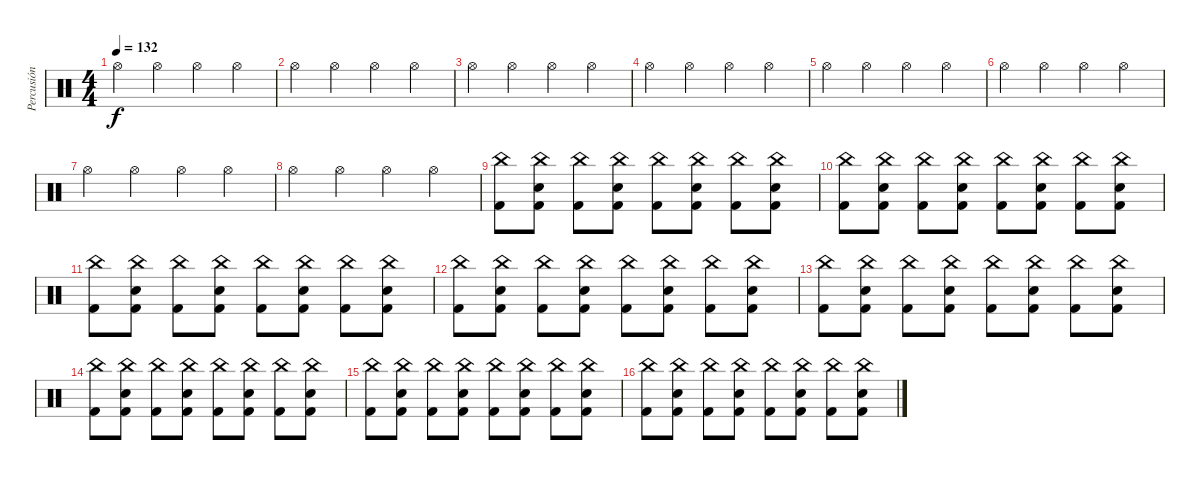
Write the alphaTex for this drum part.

\track ("Percusión" "Percusión") {instrument percussion}
\staff {score}
\articulation defaults
\ts (4 4)
\tempo 132
\clef neutral
\ks c "Hi-Hat (open)".4{dy f} "Hi-Hat (open)".4 "Hi-Hat (open)".4 "Hi-Hat (open)".4
|
"Hi-Hat (open)".4 "Hi-Hat (open)".4 "Hi-Hat (open)".4 "Hi-Hat (open)".4 |
"Hi-Hat (open)".4 "Hi-Hat (open)".4 "Hi-Hat (open)".4 "Hi-Hat (open)".4 |
"Hi-Hat (open)".4 "Hi-Hat (open)".4 "Hi-Hat (open)".4 "Hi-Hat (open)".4 |
"Hi-Hat (open)".4 "Hi-Hat (open)".4 "Hi-Hat (open)".4 "Hi-Hat (open)".4 |
"Hi-Hat (open)".4 "Hi-Hat (open)".4 "Hi-Hat (open)".4 "Hi-Hat (open)".4 |
"Hi-Hat (open)".4 "Hi-Hat (open)".4 "Hi-Hat (open)".4 "Hi-Hat (open)".4 |
"Hi-Hat (open)".4 "Hi-Hat (open)".4 "Hi-Hat (open)".4 "Hi-Hat (open)".4 |
("China (hit)" "Kick (hit) 2").8 ("China (hit)" "Electric Snare (hit)" "Kick (hit) 2").8 ("China (hit)" "Kick (hit) 2").8 ("China (hit)" "Electric Snare (hit)" "Kick (hit) 2").8 ("China (hit)" "Kick (hit) 2").8 ("China (hit)" "Electric Snare (hit)" "Kick (hit) 2").8 ("China (hit)" "Kick (hit) 2").8 ("China (hit)" "Electric Snare (hit)" "Kick (hit) 2").8 |
("China (hit)" "Kick (hit) 2").8 ("China (hit)" "Electric Snare (hit)" "Kick (hit) 2").8 ("China (hit)" "Kick (hit) 2").8 ("China (hit)" "Electric Snare (hit)" "Kick (hit) 2").8 ("China (hit)" "Kick (hit) 2").8 ("China (hit)" "Electric Snare (hit)" "Kick (hit) 2").8 ("China (hit)" "Kick (hit) 2").8 ("China (hit)" "Electric Snare (hit)" "Kick (hit) 2").8 |
("China (hit)" "Kick (hit) 2").8 ("China (hit)" "Electric Snare (hit)" "Kick (hit) 2").8 ("China (hit)" "Kick (hit) 2").8 ("China (hit)" "Electric Snare (hit)" "Kick (hit) 2").8 ("China (hit)" "Kick (hit) 2").8 ("China (hit)" "Electric Snare (hit)" "Kick (hit) 2").8 ("China (hit)" "Kick (hit) 2").8 ("China (hit)" "Electric Snare (hit)" "Kick (hit) 2").8 |
("China (hit)" "Kick (hit) 2").8 ("China (hit)" "Electric Snare (hit)" "Kick (hit) 2").8 ("China (hit)" "Kick (hit) 2").8 ("China (hit)" "Electric Snare (hit)" "Kick (hit) 2").8 ("China (hit)" "Kick (hit) 2").8 ("China (hit)" "Electric Snare (hit)" "Kick (hit) 2").8 ("China (hit)" "Kick (hit) 2").8 ("China (hit)" "Electric Snare (hit)" "Kick (hit) 2").8 |
("China (hit)" "Kick (hit) 2").8 ("China (hit)" "Electric Snare (hit)" "Kick (hit) 2").8 ("China (hit)" "Kick (hit) 2").8 ("China (hit)" "Electric Snare (hit)" "Kick (hit) 2").8 ("China (hit)" "Kick (hit) 2").8 ("China (hit)" "Electric Snare (hit)" "Kick (hit) 2").8 ("China (hit)" "Kick (hit) 2").8 ("China (hit)" "Electric Snare (hit)" "Kick (hit) 2").8 |
("China (hit)" "Kick (hit) 2").8 ("China (hit)" "Electric Snare (hit)" "Kick (hit) 2").8 ("China (hit)" "Kick (hit) 2").8 ("China (hit)" "Electric Snare (hit)" "Kick (hit) 2").8 ("China (hit)" "Kick (hit) 2").8 ("China (hit)" "Electric Snare (hit)" "Kick (hit) 2").8 ("China (hit)" "Kick (hit) 2").8 ("China (hit)" "Electric Snare (hit)" "Kick (hit) 2").8 |
("China (hit)" "Kick (hit) 2").8 ("China (hit)" "Electric Snare (hit)" "Kick (hit) 2").8 ("China (hit)" "Kick (hit) 2").8 ("China (hit)" "Electric Snare (hit)" "Kick (hit) 2").8 ("China (hit)" "Kick (hit) 2").8 ("China (hit)" "Electric Snare (hit)" "Kick (hit) 2").8 ("China (hit)" "Kick (hit) 2").8 ("China (hit)" "Electric Snare (hit)" "Kick (hit) 2").8 |
("China (hit)" "Kick (hit) 2").8 ("China (hit)" "Electric Snare (hit)" "Kick (hit) 2").8 ("China (hit)" "Kick (hit) 2").8 ("China (hit)" "Electric Snare (hit)" "Kick (hit) 2").8 ("China (hit)" "Kick (hit) 2").8 ("China (hit)" "Electric Snare (hit)" "Kick (hit) 2").8 ("China (hit)" "Kick (hit) 2").8 ("China (hit)" "Electric Snare (hit)" "Kick (hit) 2").8
